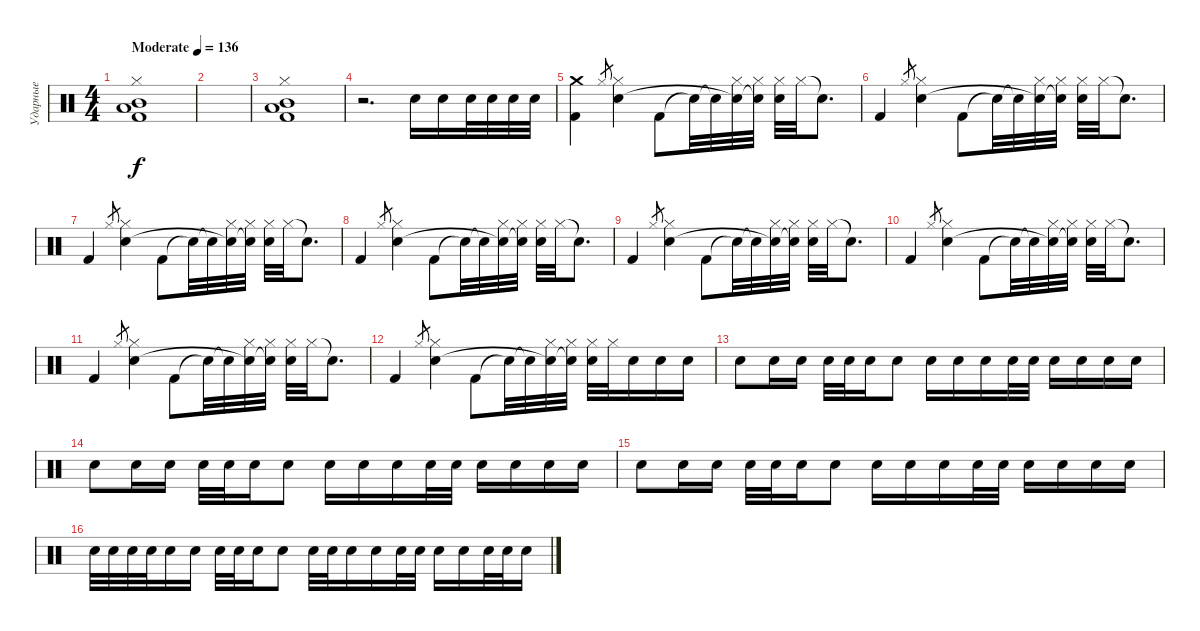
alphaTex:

\track ("Ударные" "Ударные") {instrument percussion}
\staff {score}
\articulation defaults
\ts (4 4)
\tempo (136 "Moderate")
\clef neutral
\ks c
("Hi-Hat (closed)" "Mid Tom (hit)" "Low Tom (hit)" "Kick (hit) 2").1{dy f volume 13} |
|
("Hi-Hat (closed)" "Mid Tom (hit)" "Low Tom (hit)" "Kick (hit) 2").1 |
r.2{d} "Electric Snare (hit)".16 "Electric Snare (hit)".16 "Electric Snare (hit)".32 "Electric Snare (hit)".32 "Electric Snare (hit)".32 "Electric Snare (hit)".32 |
("Crash medium (hit)" "Kick (hit) 2").4 "Hi-Hat (closed)".8{gr} ("Hi-Hat (closed)" "Electric Snare (hit)").4 "Kick (hit) 2".8 "Snare (hit)"{t}.32 "Snare (hit)"{t}.32 ("Hi-Hat (closed)" "Snare (hit)"{t}).32 ("Hi-Hat (closed)" "Snare (hit)"{t}).32 ("Hi-Hat (closed)" "Electric Snare (hit)").32 "Hi-Hat (closed)".32 "Snare (hit)"{t}.8{d} |
"Kick (hit) 2".4 "Hi-Hat (closed)".8{gr} ("Hi-Hat (closed)" "Electric Snare (hit)").4 "Kick (hit) 2".8 "Snare (hit)"{t}.32 "Snare (hit)"{t}.32 ("Hi-Hat (closed)" "Snare (hit)"{t}).32 ("Hi-Hat (closed)" "Snare (hit)"{t}).32 ("Hi-Hat (closed)" "Electric Snare (hit)").32 "Hi-Hat (closed)".32 "Snare (hit)"{t}.8{d} |
"Kick (hit) 2".4 "Hi-Hat (closed)".8{gr} ("Hi-Hat (closed)" "Electric Snare (hit)").4 "Kick (hit) 2".8 "Snare (hit)"{t}.32 "Snare (hit)"{t}.32 ("Hi-Hat (closed)" "Snare (hit)"{t}).32 ("Hi-Hat (closed)" "Snare (hit)"{t}).32 ("Hi-Hat (closed)" "Electric Snare (hit)").32 "Hi-Hat (closed)".32 "Snare (hit)"{t}.8{d} |
"Kick (hit) 2".4 "Hi-Hat (closed)".8{gr} ("Hi-Hat (closed)" "Electric Snare (hit)").4 "Kick (hit) 2".8 "Snare (hit)"{t}.32 "Snare (hit)"{t}.32 ("Hi-Hat (closed)" "Snare (hit)"{t}).32 ("Hi-Hat (closed)" "Snare (hit)"{t}).32 ("Hi-Hat (closed)" "Electric Snare (hit)").32 "Hi-Hat (closed)".32 "Snare (hit)"{t}.8{d} |
"Kick (hit) 2".4 "Hi-Hat (closed)".8{gr} ("Hi-Hat (closed)" "Electric Snare (hit)").4 "Kick (hit) 2".8 "Snare (hit)"{t}.32 "Snare (hit)"{t}.32 ("Hi-Hat (closed)" "Snare (hit)"{t}).32 ("Hi-Hat (closed)" "Snare (hit)"{t}).32 ("Hi-Hat (closed)" "Electric Snare (hit)").32 "Hi-Hat (closed)".32 "Snare (hit)"{t}.8{d} |
"Kick (hit) 2".4 "Hi-Hat (closed)".8{gr} ("Hi-Hat (closed)" "Electric Snare (hit)").4 "Kick (hit) 2".8 "Snare (hit)"{t}.32 "Snare (hit)"{t}.32 ("Hi-Hat (closed)" "Snare (hit)"{t}).32 ("Hi-Hat (closed)" "Snare (hit)"{t}).32 ("Hi-Hat (closed)" "Electric Snare (hit)").32 "Hi-Hat (closed)".32 "Snare (hit)"{t}.8{d} |
"Kick (hit) 2".4 "Hi-Hat (closed)".8{gr} ("Hi-Hat (closed)" "Electric Snare (hit)").4 "Kick (hit) 2".8 "Snare (hit)"{t}.32 "Snare (hit)"{t}.32 ("Hi-Hat (closed)" "Snare (hit)"{t}).32 ("Hi-Hat (closed)" "Snare (hit)"{t}).32 ("Hi-Hat (closed)" "Electric Snare (hit)").32 "Hi-Hat (closed)".32 "Snare (hit)"{t}.8{d} |
"Kick (hit) 2".4 "Hi-Hat (closed)".8{gr} ("Hi-Hat (closed)" "Electric Snare (hit)").4 "Kick (hit) 2".8 "Snare (hit)"{t}.32 "Snare (hit)"{t}.32 ("Hi-Hat (closed)" "Snare (hit)"{t}).32 ("Hi-Hat (closed)" "Snare (hit)"{t}).32 ("Hi-Hat (closed)" "Electric Snare (hit)").32 "Hi-Hat (closed)".32 "Electric Snare (hit)".16 "Electric Snare (hit)".16 "Electric Snare (hit)".16 |
"Electric Snare (hit)".8 "Electric Snare (hit)".16 "Electric Snare (hit)".16 "Electric Snare (hit)".32 "Electric Snare (hit)".32 "Electric Snare (hit)".16 "Electric Snare (hit)".8 "Electric Snare (hit)".16 "Electric Snare (hit)".16 "Electric Snare (hit)".16 "Electric Snare (hit)".32 "Electric Snare (hit)".32 "Electric Snare (hit)".16 "Electric Snare (hit)".16 "Electric Snare (hit)".16 "Electric Snare (hit)".16 |
"Electric Snare (hit)".8 "Electric Snare (hit)".16 "Electric Snare (hit)".16 "Electric Snare (hit)".32 "Electric Snare (hit)".32 "Electric Snare (hit)".16 "Electric Snare (hit)".8 "Electric Snare (hit)".16 "Electric Snare (hit)".16 "Electric Snare (hit)".16 "Electric Snare (hit)".32 "Electric Snare (hit)".32 "Electric Snare (hit)".16 "Electric Snare (hit)".16 "Electric Snare (hit)".16 "Electric Snare (hit)".16 |
"Electric Snare (hit)".8 "Electric Snare (hit)".16 "Electric Snare (hit)".16 "Electric Snare (hit)".32 "Electric Snare (hit)".32 "Electric Snare (hit)".16 "Electric Snare (hit)".8 "Electric Snare (hit)".16 "Electric Snare (hit)".16 "Electric Snare (hit)".16 "Electric Snare (hit)".32 "Electric Snare (hit)".32 "Electric Snare (hit)".16 "Electric Snare (hit)".16 "Electric Snare (hit)".16 "Electric Snare (hit)".16 |
"Electric Snare (hit)".32 "Electric Snare (hit)".32 "Electric Snare (hit)".32 "Electric Snare (hit)".32 "Electric Snare (hit)".16 "Electric Snare (hit)".16 "Electric Snare (hit)".32 "Electric Snare (hit)".32 "Electric Snare (hit)".16 "Electric Snare (hit)".8 "Electric Snare (hit)".32 "Electric Snare (hit)".32 "Electric Snare (hit)".16 "Electric Snare (hit)".16 "Electric Snare (hit)".32 "Electric Snare (hit)".32 "Electric Snare (hit)".16 "Electric Snare (hit)".16 "Electric Snare (hit)".32 "Electric Snare (hit)".32 "Electric Snare (hit)".16
